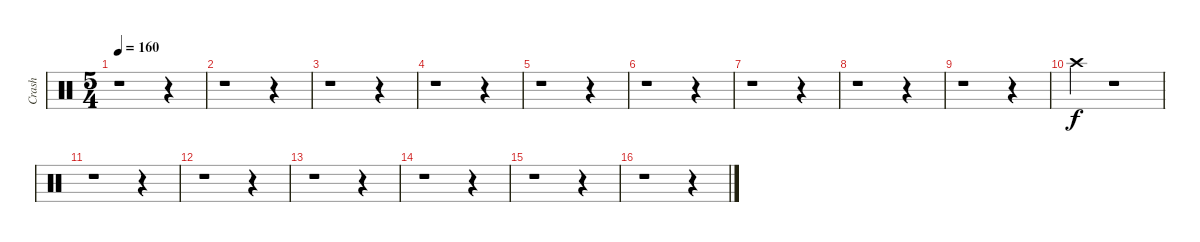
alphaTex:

\track ("Crash" "Crash") {instrument percussion}
\staff {score}
\articulation defaults
\ts (5 4)
\tempo 160
\clef neutral
\ks c
r.1{dy f} r.4 |
r.1 r.4 |
r.1 r.4 |
r.1 r.4 |
r.1 r.4 |
r.1 r.4 |
r.1 r.4 |
r.1 r.4 |
r.1 r.4 |
"Crash high (hit)".4 r.1 |
r.1 r.4 |
r.1 r.4 |
r.1 r.4 |
r.1 r.4 |
r.1 r.4 |
r.1 r.4
